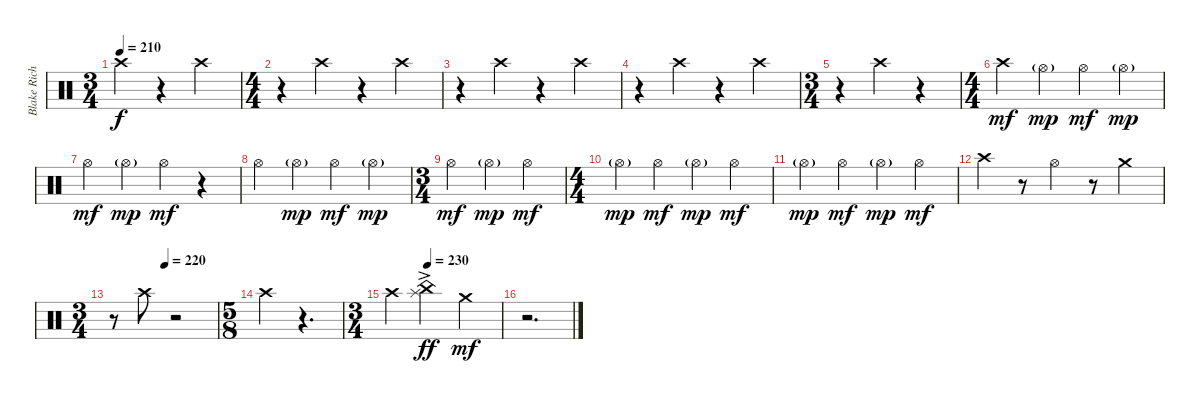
\track ("Blake Richardson Drums" "Blake Rich") {instrument percussion}
\staff {score}
\articulation defaults
\ts (3 4)
\tempo 210
\clef neutral
\ks c "Crash high (hit)".4{dy f}
r.4 "Crash high (hit)".4 |
\ts (4 4)
r.4 "Crash high (hit)".4 r.4 "Crash high (hit)".4 |
r.4 "Crash high (hit)".4 r.4 "Crash high (hit)".4 |
r.4 "Crash high (hit)".4 r.4 "Crash high (hit)".4 |
\ts (3 4)
r.4 "Crash high (hit)".4 r.4 |
\ts (4 4)
"Crash high (hit)".4{dy mf} "Hi-Hat (open)"{g}.4{dy mp} "Hi-Hat (open)".4{dy mf} "Hi-Hat (open)"{g}.4{dy mp} |
"Hi-Hat (open)".4{dy mf} "Hi-Hat (open)"{g}.4{dy mp} "Hi-Hat (open)".4{dy mf} r.4 |
"Hi-Hat (open)".4 "Hi-Hat (open)"{g}.4{dy mp} "Hi-Hat (open)".4{dy mf} "Hi-Hat (open)"{g}.4{dy mp} |
\ts (3 4)
"Hi-Hat (open)".4{dy mf} "Hi-Hat (open)"{g}.4{dy mp} "Hi-Hat (open)".4{dy mf} |
\ts (4 4)
"Hi-Hat (open)"{g}.4{dy mp} "Hi-Hat (open)".4{dy mf} "Hi-Hat (open)"{g}.4{dy mp} "Hi-Hat (open)".4{dy mf} |
"Hi-Hat (open)"{g}.4{dy mp} "Hi-Hat (open)".4{dy mf} "Hi-Hat (open)"{g}.4{dy mp} "Hi-Hat (open)".4{dy mf} |
"Crash high (hit)".4 r.8 "Hi-Hat (open)".4 r.8 "Crash medium (hit)".4 |
\ts (3 4)
\tempo (220 0.5)
r.8 "Crash high (hit)".8 r.2 |
\ts (5 8)
"Crash high (hit)".4 r.4{d} |
\ts (3 4)
\tempo (230 0.3333333333333333)
"Crash high (hit)".4 ("China (hit)" "Splash (hit)"{ac}).4{dy ff} "Crash medium (hit)".4{dy mf} |
r.2{d}
